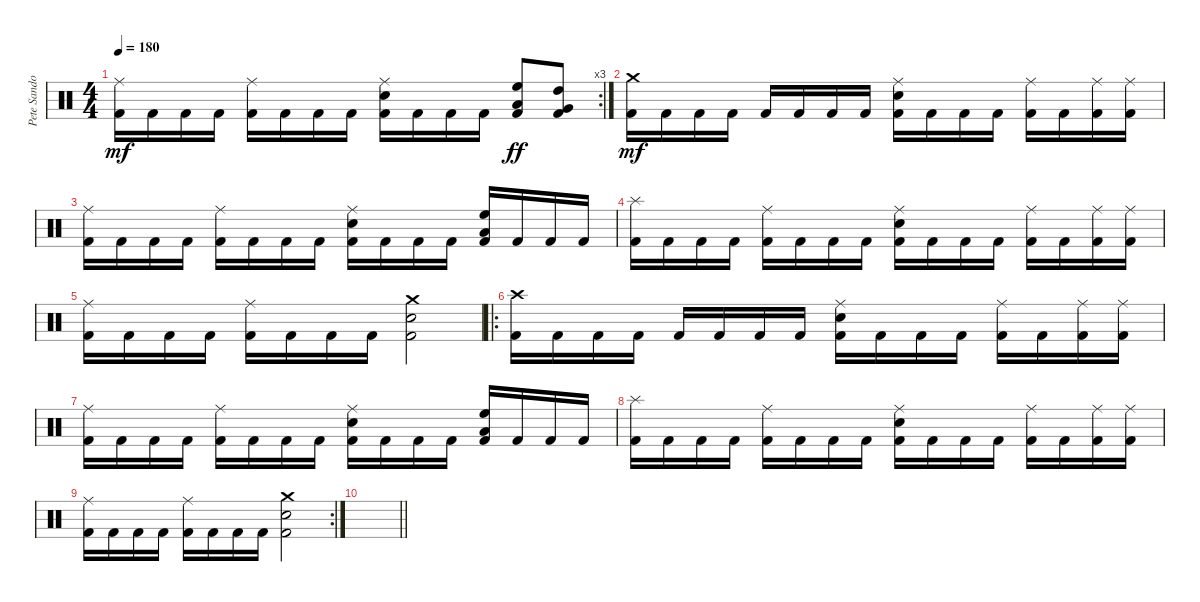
\track ("Pete Sandoval" "Pete Sando") {instrument percussion}
\staff {score}
\articulation defaults
\rc 3
\ts (4 4)
\tempo 180
\clef neutral
\ks c
("Ride (middle)" "Kick (hit) 2").16{dy mf} "Kick (hit) 2".16 "Kick (hit) 2".16 "Kick (hit) 2".16 ("Ride (middle)" "Kick (hit) 2").16 "Kick (hit) 2".16 "Kick (hit) 2".16 "Kick (hit) 2".16 ("Snare (hit) 2" "Ride (middle)" "Kick (hit) 2").16 "Kick (hit) 2".16 "Kick (hit) 2".16 "Kick (hit) 2".16 ("High Floor Tom (hit)" "Low Tom (hit)" "Kick (hit) 2").8{dy ff} ("High Tom (hit)" "Very Low Tom (hit)" "Kick (hit) 2").8 |
("Crash medium (hit)" "Kick (hit) 2").16{dy mf} "Kick (hit) 2".16 "Kick (hit) 2".16 "Kick (hit) 2".16 "Kick (hit) 2".16 "Kick (hit) 2".16 "Kick (hit) 2".16 "Kick (hit) 2".16 ("Snare (hit) 2" "Ride (middle)" "Kick (hit) 2").16 "Kick (hit) 2".16 "Kick (hit) 2".16 "Kick (hit) 2".16 ("Ride (middle)" "Kick (hit) 2").16 "Kick (hit) 2".16 ("Ride (middle)" "Kick (hit) 2").16 ("Ride (middle)" "Kick (hit) 2").16 |
("Ride (middle)" "Kick (hit) 2").16 "Kick (hit) 2".16 "Kick (hit) 2".16 "Kick (hit) 2".16 ("Ride (middle)" "Kick (hit) 2").16 "Kick (hit) 2".16 "Kick (hit) 2".16 "Kick (hit) 2".16 ("Snare (hit) 2" "Ride (middle)" "Kick (hit) 2").16 "Kick (hit) 2".16 "Kick (hit) 2".16 "Kick (hit) 2".16 ("High Floor Tom (hit)" "Low Tom (hit)" "Kick (hit) 2").16 "Kick (hit) 2".16 "Kick (hit) 2".16 "Kick (hit) 2".16 |
("Splash (hit)" "Kick (hit) 2").16 "Kick (hit) 2".16 "Kick (hit) 2".16 "Kick (hit) 2".16 ("Ride (middle)" "Kick (hit) 2").16 "Kick (hit) 2".16 "Kick (hit) 2".16 "Kick (hit) 2".16 ("Snare (hit) 2" "Ride (middle)" "Kick (hit) 2").16 "Kick (hit) 2".16 "Kick (hit) 2".16 "Kick (hit) 2".16 ("Ride (middle)" "Kick (hit) 2").16 "Kick (hit) 2".16 ("Ride (middle)" "Kick (hit) 2").16 ("Ride (middle)" "Kick (hit) 2").16 |
("Ride (middle)" "Kick (hit) 2").16 "Kick (hit) 2".16 "Kick (hit) 2".16 "Kick (hit) 2".16 ("Ride (middle)" "Kick (hit) 2").16 "Kick (hit) 2".16 "Kick (hit) 2".16 "Kick (hit) 2".16 ("Snare (hit) 2" "Crash medium (hit)" "Kick (hit) 2").2 |
\ro
("Crash high (hit)" "Kick (hit) 2").16 "Kick (hit) 2".16 "Kick (hit) 2".16 "Kick (hit) 2".16 "Kick (hit) 2".16 "Kick (hit) 2".16 "Kick (hit) 2".16 "Kick (hit) 2".16 ("Snare (hit) 2" "Ride (middle)" "Kick (hit) 2").16 "Kick (hit) 2".16 "Kick (hit) 2".16 "Kick (hit) 2".16 ("Ride (middle)" "Kick (hit) 2").16 "Kick (hit) 2".16 ("Ride (middle)" "Kick (hit) 2").16 ("Ride (middle)" "Kick (hit) 2").16 |
("Ride (middle)" "Kick (hit) 2").16 "Kick (hit) 2".16 "Kick (hit) 2".16 "Kick (hit) 2".16 ("Ride (middle)" "Kick (hit) 2").16 "Kick (hit) 2".16 "Kick (hit) 2".16 "Kick (hit) 2".16 ("Snare (hit) 2" "Ride (middle)" "Kick (hit) 2").16 "Kick (hit) 2".16 "Kick (hit) 2".16 "Kick (hit) 2".16 ("High Floor Tom (hit)" "Low Tom (hit)" "Kick (hit) 2").16 "Kick (hit) 2".16 "Kick (hit) 2".16 "Kick (hit) 2".16 |
("Splash (hit)" "Kick (hit) 2").16 "Kick (hit) 2".16 "Kick (hit) 2".16 "Kick (hit) 2".16 ("Ride (middle)" "Kick (hit) 2").16 "Kick (hit) 2".16 "Kick (hit) 2".16 "Kick (hit) 2".16 ("Snare (hit) 2" "Ride (middle)" "Kick (hit) 2").16 "Kick (hit) 2".16 "Kick (hit) 2".16 "Kick (hit) 2".16 ("Ride (middle)" "Kick (hit) 2").16 "Kick (hit) 2".16 ("Ride (middle)" "Kick (hit) 2").16 ("Ride (middle)" "Kick (hit) 2").16 |
\rc 2
("Ride (middle)" "Kick (hit) 2").16 "Kick (hit) 2".16 "Kick (hit) 2".16 "Kick (hit) 2".16 ("Ride (middle)" "Kick (hit) 2").16 "Kick (hit) 2".16 "Kick (hit) 2".16 "Kick (hit) 2".16 ("Snare (hit) 2" "Crash medium (hit)" "Kick (hit) 2").2 |
\barLineRight lightlight
